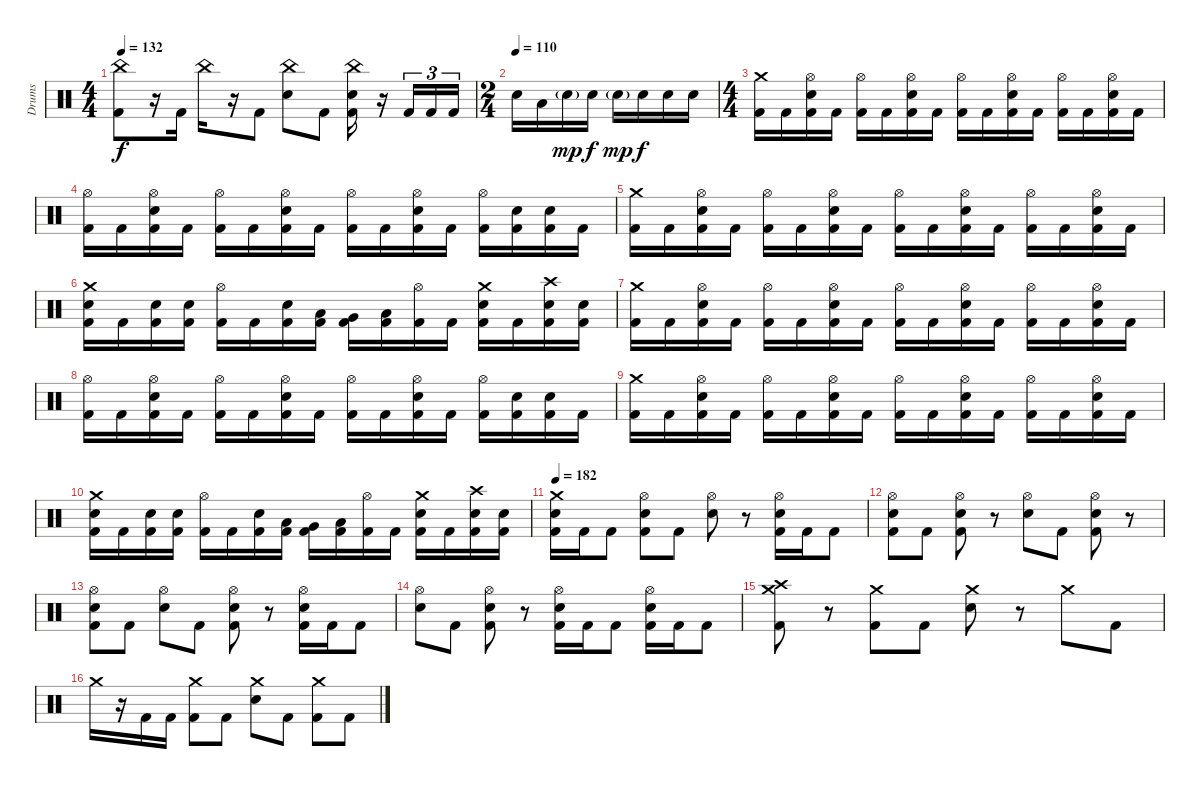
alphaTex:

\track ("Drums" "Drums") {instrument percussion}
\staff {score}
\articulation defaults
\ts (4 4)
\tempo 132
\clef neutral
\ks c
("China (hit)" "Kick (hit) 2").8{dy f} r.16 "Kick (hit) 2".16 "China (hit)".16 r.16 "Kick (hit) 2".8 ("China (hit)" "Electric Snare (hit)").8 "Kick (hit) 2".8 ("China (hit)" "Electric Snare (hit)" "Kick (hit) 2").16 r.16 "Kick (hit) 2".16{tu (3 2)} "Kick (hit) 2".16{tu (3 2)} "Kick (hit) 2".16{tu (3 2)} |
\ts (2 4)
\tempo (110)
"Electric Snare (hit)".16 "Low Tom (hit)".16 "Snare (hit) 2"{g}.16{dy mp} "Electric Snare (hit)".16{dy f} "Snare (hit) 2"{g}.16{dy mp} "Electric Snare (hit)".16{dy f} "Electric Snare (hit)".16 "Electric Snare (hit)".16 |
\ts (4 4)
("Crash medium (hit)" "Kick (hit) 2").16 "Kick (hit) 2".16 ("Hi-Hat (open)" "Electric Snare (hit)" "Kick (hit) 2").16 "Kick (hit) 2".16 ("Hi-Hat (open)" "Kick (hit) 2").16 "Kick (hit) 2".16 ("Hi-Hat (open)" "Electric Snare (hit)" "Kick (hit) 2").16 "Kick (hit) 2".16 ("Hi-Hat (open)" "Kick (hit) 2").16 "Kick (hit) 2".16 ("Hi-Hat (open)" "Electric Snare (hit)" "Kick (hit) 2").16 "Kick (hit) 2".16 ("Hi-Hat (open)" "Kick (hit) 2").16 "Kick (hit) 2".16 ("Hi-Hat (open)" "Electric Snare (hit)" "Kick (hit) 2").16 "Kick (hit) 2".16 |
("Hi-Hat (open)" "Kick (hit) 2").16 "Kick (hit) 2".16 ("Hi-Hat (open)" "Electric Snare (hit)" "Kick (hit) 2").16 "Kick (hit) 2".16 ("Hi-Hat (open)" "Kick (hit) 2").16 "Kick (hit) 2".16 ("Hi-Hat (open)" "Electric Snare (hit)" "Kick (hit) 2").16 "Kick (hit) 2".16 ("Hi-Hat (open)" "Kick (hit) 2").16 "Kick (hit) 2".16 ("Hi-Hat (open)" "Electric Snare (hit)" "Kick (hit) 2").16 "Kick (hit) 2".16 ("Hi-Hat (open)" "Kick (hit) 2").16 ("Electric Snare (hit)" "Kick (hit) 2").16 ("Electric Snare (hit)" "Kick (hit) 2").16 "Kick (hit) 2".16 |
("Crash medium (hit)" "Kick (hit) 2").16 "Kick (hit) 2".16 ("Hi-Hat (open)" "Electric Snare (hit)" "Kick (hit) 2").16 "Kick (hit) 2".16 ("Hi-Hat (open)" "Kick (hit) 2").16 "Kick (hit) 2".16 ("Hi-Hat (open)" "Electric Snare (hit)" "Kick (hit) 2").16 "Kick (hit) 2".16 ("Hi-Hat (open)" "Kick (hit) 2").16 "Kick (hit) 2".16 ("Hi-Hat (open)" "Electric Snare (hit)" "Kick (hit) 2").16 "Kick (hit) 2".16 ("Hi-Hat (open)" "Kick (hit) 2").16 "Kick (hit) 2".16 ("Hi-Hat (open)" "Electric Snare (hit)" "Kick (hit) 2").16 "Kick (hit) 2".16 |
("Crash medium (hit)" "Electric Snare (hit)" "Kick (hit) 2").16 "Kick (hit) 2".16 ("Electric Snare (hit)" "Kick (hit) 2").16 ("Electric Snare (hit)" "Kick (hit) 2").16 ("Hi-Hat (open)" "Kick (hit) 2").16 "Kick (hit) 2".16 ("Electric Snare (hit)" "Kick (hit) 2").16 ("Low Tom (hit)" "Kick (hit) 2").16 ("Very Low Tom (hit)" "Kick (hit) 2").16 ("Low Floor Tom (hit)" "Kick (hit) 2").16 ("Hi-Hat (open)" "Kick (hit) 2").16 "Kick (hit) 2".16 ("Crash medium (hit)" "Electric Snare (hit)" "Kick (hit) 2").16 "Kick (hit) 2".16 ("Crash high (hit)" "Electric Snare (hit)" "Kick (hit) 2").16 ("Electric Snare (hit)" "Kick (hit) 2").16 |
("Crash medium (hit)" "Kick (hit) 2").16 "Kick (hit) 2".16 ("Hi-Hat (open)" "Electric Snare (hit)" "Kick (hit) 2").16 "Kick (hit) 2".16 ("Hi-Hat (open)" "Kick (hit) 2").16 "Kick (hit) 2".16 ("Hi-Hat (open)" "Electric Snare (hit)" "Kick (hit) 2").16 "Kick (hit) 2".16 ("Hi-Hat (open)" "Kick (hit) 2").16 "Kick (hit) 2".16 ("Hi-Hat (open)" "Electric Snare (hit)" "Kick (hit) 2").16 "Kick (hit) 2".16 ("Hi-Hat (open)" "Kick (hit) 2").16 "Kick (hit) 2".16 ("Hi-Hat (open)" "Electric Snare (hit)" "Kick (hit) 2").16 "Kick (hit) 2".16 |
("Hi-Hat (open)" "Kick (hit) 2").16 "Kick (hit) 2".16 ("Hi-Hat (open)" "Electric Snare (hit)" "Kick (hit) 2").16 "Kick (hit) 2".16 ("Hi-Hat (open)" "Kick (hit) 2").16 "Kick (hit) 2".16 ("Hi-Hat (open)" "Electric Snare (hit)" "Kick (hit) 2").16 "Kick (hit) 2".16 ("Hi-Hat (open)" "Kick (hit) 2").16 "Kick (hit) 2".16 ("Hi-Hat (open)" "Electric Snare (hit)" "Kick (hit) 2").16 "Kick (hit) 2".16 ("Hi-Hat (open)" "Kick (hit) 2").16 ("Electric Snare (hit)" "Kick (hit) 2").16 ("Electric Snare (hit)" "Kick (hit) 2").16 "Kick (hit) 2".16 |
("Crash medium (hit)" "Kick (hit) 2").16 "Kick (hit) 2".16 ("Hi-Hat (open)" "Electric Snare (hit)" "Kick (hit) 2").16 "Kick (hit) 2".16 ("Hi-Hat (open)" "Kick (hit) 2").16 "Kick (hit) 2".16 ("Hi-Hat (open)" "Electric Snare (hit)" "Kick (hit) 2").16 "Kick (hit) 2".16 ("Hi-Hat (open)" "Kick (hit) 2").16 "Kick (hit) 2".16 ("Hi-Hat (open)" "Electric Snare (hit)" "Kick (hit) 2").16 "Kick (hit) 2".16 ("Hi-Hat (open)" "Kick (hit) 2").16 "Kick (hit) 2".16 ("Hi-Hat (open)" "Electric Snare (hit)" "Kick (hit) 2").16 "Kick (hit) 2".16 |
("Crash medium (hit)" "Electric Snare (hit)" "Kick (hit) 2").16 "Kick (hit) 2".16 ("Electric Snare (hit)" "Kick (hit) 2").16 ("Electric Snare (hit)" "Kick (hit) 2").16 ("Hi-Hat (open)" "Kick (hit) 2").16 "Kick (hit) 2".16 ("Electric Snare (hit)" "Kick (hit) 2").16 ("Low Tom (hit)" "Kick (hit) 2").16 ("Very Low Tom (hit)" "Kick (hit) 2").16 ("Low Floor Tom (hit)" "Kick (hit) 2").16 ("Hi-Hat (open)" "Kick (hit) 2").16 "Kick (hit) 2".16 ("Crash medium (hit)" "Electric Snare (hit)" "Kick (hit) 2").16 "Kick (hit) 2".16 ("Crash high (hit)" "Electric Snare (hit)" "Kick (hit) 2").16 ("Electric Snare (hit)" "Kick (hit) 2").16 |
\tempo 182
("Crash medium (hit)" "Electric Snare (hit)" "Kick (hit) 2").16 "Kick (hit) 2".16 "Kick (hit) 2".8 ("Hi-Hat (open)" "Electric Snare (hit)" "Kick (hit) 2").8 "Kick (hit) 2".8 ("Hi-Hat (open)" "Electric Snare (hit)").8 r.8 ("Hi-Hat (open)" "Electric Snare (hit)" "Kick (hit) 2").16 "Kick (hit) 2".16 "Kick (hit) 2".8 |
("Hi-Hat (open)" "Electric Snare (hit)" "Kick (hit) 2").8 "Kick (hit) 2".8 ("Hi-Hat (open)" "Electric Snare (hit)" "Kick (hit) 2").8 r.8 ("Hi-Hat (open)" "Electric Snare (hit)").8 "Kick (hit) 2".8 ("Hi-Hat (open)" "Electric Snare (hit)" "Kick (hit) 2").8 r.8 |
("Hi-Hat (open)" "Electric Snare (hit)" "Kick (hit) 2").8 "Kick (hit) 2".8 ("Hi-Hat (open)" "Electric Snare (hit)").8 "Kick (hit) 2".8 ("Hi-Hat (open)" "Electric Snare (hit)" "Kick (hit) 2").8 r.8 ("Hi-Hat (open)" "Electric Snare (hit)" "Kick (hit) 2").16 "Kick (hit) 2".16 "Kick (hit) 2".8 |
("Hi-Hat (open)" "Electric Snare (hit)").8 "Kick (hit) 2".8 ("Hi-Hat (open)" "Electric Snare (hit)" "Kick (hit) 2").8 r.8 ("Hi-Hat (open)" "Electric Snare (hit)" "Kick (hit) 2").16 "Kick (hit) 2".16 "Kick (hit) 2".8 ("Hi-Hat (open)" "Electric Snare (hit)" "Kick (hit) 2").16 "Kick (hit) 2".16 "Kick (hit) 2".8 |
("Crash medium (hit)" "Crash high (hit)" "Kick (hit) 2").8 r.8 ("Crash medium (hit)" "Kick (hit) 2").8 "Kick (hit) 2".8 ("Crash medium (hit)" "Electric Snare (hit)").8 r.8 "Crash medium (hit)".8 "Kick (hit) 2".8 |
"Crash medium (hit)".16 r.16 "Kick (hit) 2".16 "Kick (hit) 2".16 ("Crash medium (hit)" "Kick (hit) 2").8 "Kick (hit) 2".8 ("Crash medium (hit)" "Electric Snare (hit)").8 "Kick (hit) 2".8 ("Crash medium (hit)" "Kick (hit) 2").8 "Kick (hit) 2".8
